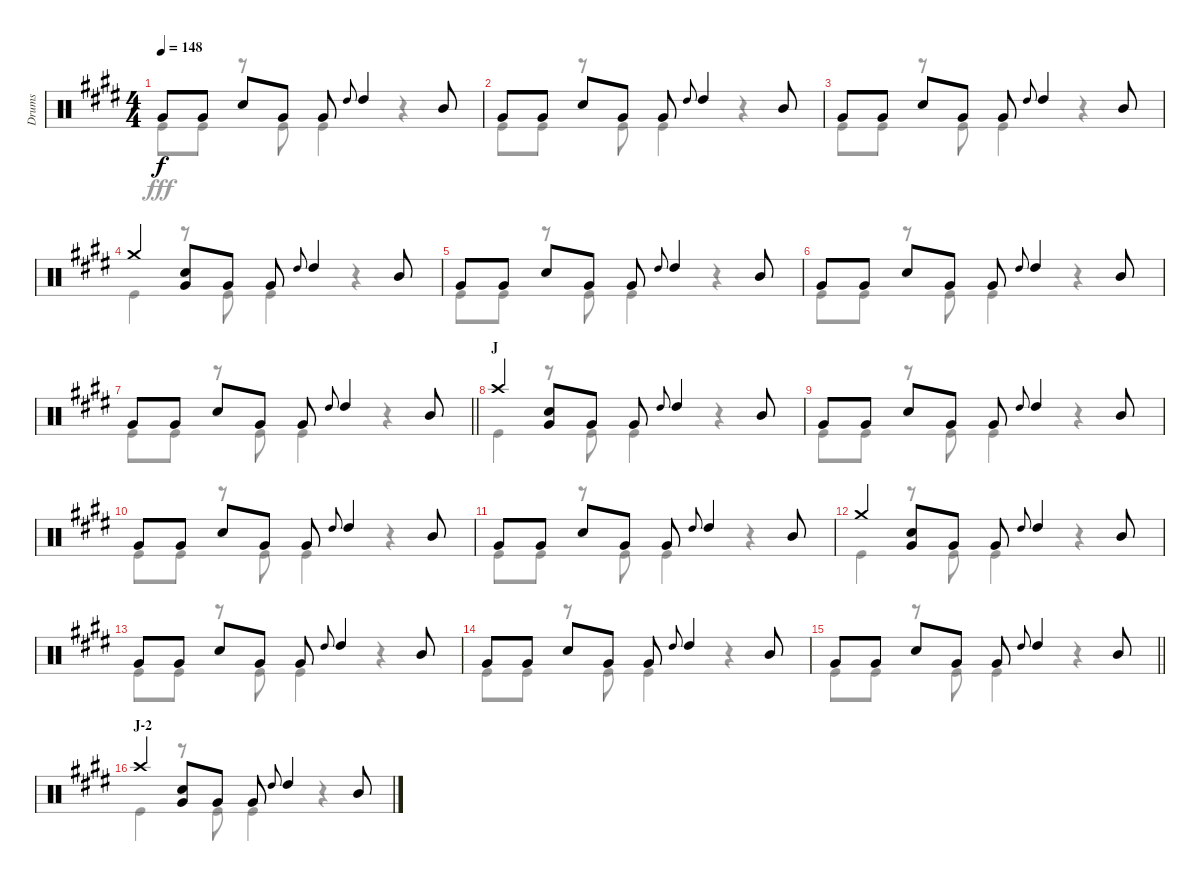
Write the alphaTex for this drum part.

\track ("Drums" "Drums") {instrument percussion}
\staff {score}
\articulation defaults
\voice
\ts (4 4)
\tempo 148
\clef neutral
\ks e "Very Low Tom (hit)".8{dy f} "Very Low Tom (hit)".8 "Snare (hit) 2".8 "Very Low Tom (hit)".8 "Very Low Tom (hit)".8 "High Tom (hit)".8{gr onbeat} "High Tom (hit)".4 "Mid Tom (hit)".8
|
"Very Low Tom (hit)".8 "Very Low Tom (hit)".8 "Snare (hit) 2".8 "Very Low Tom (hit)".8 "Very Low Tom (hit)".8 "High Tom (hit)".8{gr onbeat} "High Tom (hit)".4 "Mid Tom (hit)".8 |
"Very Low Tom (hit)".8 "Very Low Tom (hit)".8 "Snare (hit) 2".8 "Very Low Tom (hit)".8 "Very Low Tom (hit)".8 "High Tom (hit)".8{gr onbeat} "High Tom (hit)".4 "Mid Tom (hit)".8 |
"Crash medium (hit)".4 ("Snare (hit) 2" "Very Low Tom (hit)").8 "Very Low Tom (hit)".8 "Very Low Tom (hit)".8 "High Tom (hit)".8{gr onbeat} "High Tom (hit)".4 "Mid Tom (hit)".8 |
"Very Low Tom (hit)".8 "Very Low Tom (hit)".8 "Snare (hit) 2".8 "Very Low Tom (hit)".8 "Very Low Tom (hit)".8 "High Tom (hit)".8{gr onbeat} "High Tom (hit)".4 "Mid Tom (hit)".8 |
"Very Low Tom (hit)".8 "Very Low Tom (hit)".8 "Snare (hit) 2".8 "Very Low Tom (hit)".8 "Very Low Tom (hit)".8 "High Tom (hit)".8{gr onbeat} "High Tom (hit)".4 "Mid Tom (hit)".8 |
\barLineRight lightlight "Very Low Tom (hit)".8 "Very Low Tom (hit)".8 "Snare (hit) 2".8 "Very Low Tom (hit)".8 "Very Low Tom (hit)".8 "High Tom (hit)".8{gr onbeat} "High Tom (hit)".4 "Mid Tom (hit)".8
|
\section ("" "J")
"Crash high (hit)".4 ("Snare (hit) 2" "Very Low Tom (hit)").8 "Very Low Tom (hit)".8 "Very Low Tom (hit)".8 "High Tom (hit)".8{gr onbeat} "High Tom (hit)".4 "Mid Tom (hit)".8 |
"Very Low Tom (hit)".8 "Very Low Tom (hit)".8 "Snare (hit) 2".8 "Very Low Tom (hit)".8 "Very Low Tom (hit)".8 "High Tom (hit)".8{gr onbeat} "High Tom (hit)".4 "Mid Tom (hit)".8 |
"Very Low Tom (hit)".8 "Very Low Tom (hit)".8 "Snare (hit) 2".8 "Very Low Tom (hit)".8 "Very Low Tom (hit)".8 "High Tom (hit)".8{gr onbeat} "High Tom (hit)".4 "Mid Tom (hit)".8 |
"Very Low Tom (hit)".8 "Very Low Tom (hit)".8 "Snare (hit) 2".8 "Very Low Tom (hit)".8 "Very Low Tom (hit)".8 "High Tom (hit)".8{gr onbeat} "High Tom (hit)".4 "Mid Tom (hit)".8 |
"Crash medium (hit)".4 ("Snare (hit) 2" "Very Low Tom (hit)").8 "Very Low Tom (hit)".8 "Very Low Tom (hit)".8 "High Tom (hit)".8{gr onbeat} "High Tom (hit)".4 "Mid Tom (hit)".8 |
"Very Low Tom (hit)".8 "Very Low Tom (hit)".8 "Snare (hit) 2".8 "Very Low Tom (hit)".8 "Very Low Tom (hit)".8 "High Tom (hit)".8{gr onbeat} "High Tom (hit)".4 "Mid Tom (hit)".8 |
"Very Low Tom (hit)".8 "Very Low Tom (hit)".8 "Snare (hit) 2".8 "Very Low Tom (hit)".8 "Very Low Tom (hit)".8 "High Tom (hit)".8{gr onbeat} "High Tom (hit)".4 "Mid Tom (hit)".8 |
\barLineRight lightlight "Very Low Tom (hit)".8 "Very Low Tom (hit)".8 "Snare (hit) 2".8 "Very Low Tom (hit)".8 "Very Low Tom (hit)".8 "High Tom (hit)".8{gr onbeat} "High Tom (hit)".4 "Mid Tom (hit)".8
|
\section ("" "J-2")
"Crash high (hit)".4 ("Snare (hit) 2" "Very Low Tom (hit)").8 "Very Low Tom (hit)".8 "Very Low Tom (hit)".8 "High Tom (hit)".8{gr onbeat} "High Tom (hit)".4 "Mid Tom (hit)".8
\voice
\clef neutral
\ottava regular
\simile none
\ks e "Kick (hit)".8{dy fff} "Kick (hit)".8
r.8 "Kick (hit)".8 "Kick (hit)".4 r.4 |
"Kick (hit)".8 "Kick (hit)".8 r.8 "Kick (hit)".8 "Kick (hit)".4 r.4 |
"Kick (hit)".8 "Kick (hit)".8 r.8 "Kick (hit)".8 "Kick (hit)".4 r.4 |
"Kick (hit)".4 r.8 "Kick (hit)".8 "Kick (hit)".4 r.4 |
"Kick (hit)".8 "Kick (hit)".8 r.8 "Kick (hit)".8 "Kick (hit)".4 r.4 |
"Kick (hit)".8 "Kick (hit)".8 r.8 "Kick (hit)".8 "Kick (hit)".4 r.4 |
\barLineRight lightlight "Kick (hit)".8 "Kick (hit)".8
r.8 "Kick (hit)".8 "Kick (hit)".4 r.4 |
"Kick (hit)".4 r.8 "Kick (hit)".8 "Kick (hit)".4 r.4 |
"Kick (hit)".8 "Kick (hit)".8 r.8 "Kick (hit)".8 "Kick (hit)".4 r.4 |
"Kick (hit)".8 "Kick (hit)".8 r.8 "Kick (hit)".8 "Kick (hit)".4 r.4 |
"Kick (hit)".8 "Kick (hit)".8 r.8 "Kick (hit)".8 "Kick (hit)".4 r.4 |
"Kick (hit)".4 r.8 "Kick (hit)".8 "Kick (hit)".4 r.4 |
"Kick (hit)".8 "Kick (hit)".8 r.8 "Kick (hit)".8 "Kick (hit)".4 r.4 |
"Kick (hit)".8 "Kick (hit)".8 r.8 "Kick (hit)".8 "Kick (hit)".4 r.4 |
\barLineRight lightlight "Kick (hit)".8 "Kick (hit)".8
r.8 "Kick (hit)".8 "Kick (hit)".4 r.4 |
"Kick (hit)".4 r.8 "Kick (hit)".8 "Kick (hit)".4 r.4
